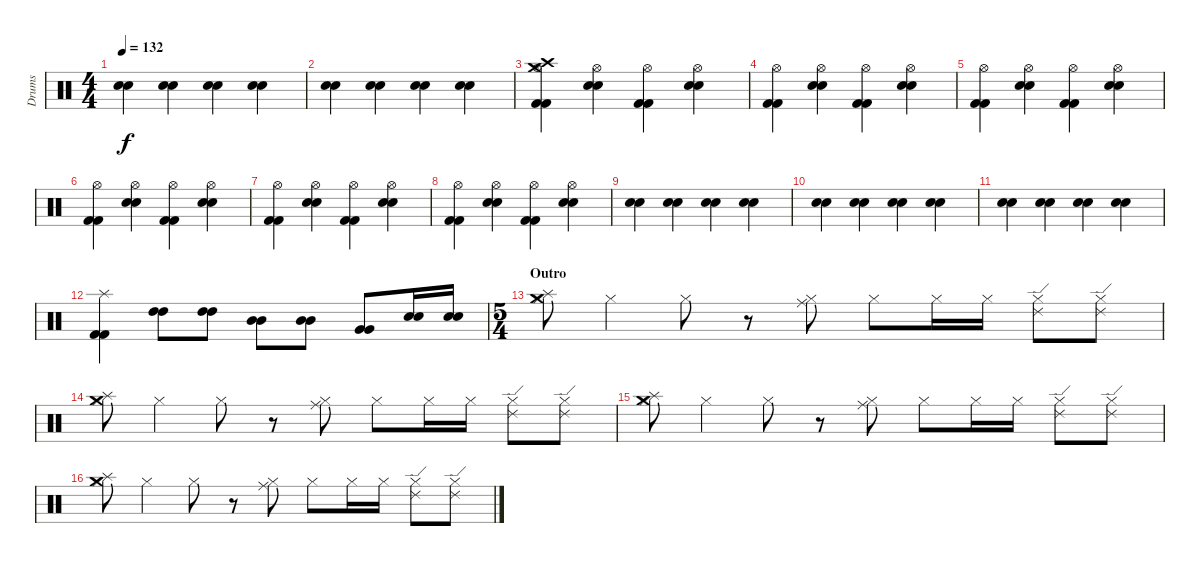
\track ("Drums" "Drums") {instrument percussion}
\staff {score}
\articulation defaults
\ts (4 4)
\tempo 132
\clef neutral
\ks c
("Snare (hit) 2" "Electric Snare (hit)").4{dy f} ("Snare (hit) 2" "Electric Snare (hit)").4 ("Snare (hit) 2" "Electric Snare (hit)").4 ("Snare (hit) 2" "Electric Snare (hit)").4 |
("Snare (hit) 2" "Electric Snare (hit)").4 ("Snare (hit) 2" "Electric Snare (hit)").4 ("Snare (hit) 2" "Electric Snare (hit)").4 ("Snare (hit) 2" "Electric Snare (hit)").4 |
("Kick (hit) 2" "Kick (hit) 2" "Hi-Hat (open)" "Crash medium (hit)" "Crash high (hit)").4 ("Snare (hit) 2" "Snare (hit) 2" "Hi-Hat (open)").4 ("Kick (hit) 2" "Kick (hit) 2" "Hi-Hat (open)").4 ("Snare (hit) 2" "Snare (hit) 2" "Hi-Hat (open)").4 |
("Kick (hit) 2" "Kick (hit) 2" "Hi-Hat (open)").4 ("Snare (hit) 2" "Snare (hit) 2" "Hi-Hat (open)").4 ("Kick (hit) 2" "Kick (hit) 2" "Hi-Hat (open)").4 ("Snare (hit) 2" "Snare (hit) 2" "Hi-Hat (open)").4 |
("Kick (hit) 2" "Kick (hit) 2" "Hi-Hat (open)").4 ("Snare (hit) 2" "Snare (hit) 2" "Hi-Hat (open)").4 ("Kick (hit) 2" "Kick (hit) 2" "Hi-Hat (open)").4 ("Snare (hit) 2" "Snare (hit) 2" "Hi-Hat (open)").4 |
("Kick (hit) 2" "Kick (hit) 2" "Hi-Hat (open)").4 ("Snare (hit) 2" "Snare (hit) 2" "Hi-Hat (open)").4 ("Kick (hit) 2" "Kick (hit) 2" "Hi-Hat (open)").4 ("Snare (hit) 2" "Snare (hit) 2" "Hi-Hat (open)").4 |
("Kick (hit) 2" "Kick (hit) 2" "Hi-Hat (open)").4 ("Snare (hit) 2" "Snare (hit) 2" "Hi-Hat (open)").4 ("Kick (hit) 2" "Kick (hit) 2" "Hi-Hat (open)").4 ("Snare (hit) 2" "Snare (hit) 2" "Hi-Hat (open)").4 |
("Kick (hit) 2" "Kick (hit) 2" "Hi-Hat (open)").4 ("Snare (hit) 2" "Snare (hit) 2" "Hi-Hat (open)").4 ("Kick (hit) 2" "Kick (hit) 2" "Hi-Hat (open)").4 ("Snare (hit) 2" "Snare (hit) 2" "Hi-Hat (open)").4 |
("Snare (hit) 2" "Electric Snare (hit)").4 ("Snare (hit) 2" "Electric Snare (hit)").4 ("Snare (hit) 2" "Electric Snare (hit)").4 ("Snare (hit) 2" "Electric Snare (hit)").4 |
("Snare (hit) 2" "Electric Snare (hit)").4 ("Snare (hit) 2" "Electric Snare (hit)").4 ("Snare (hit) 2" "Electric Snare (hit)").4 ("Snare (hit) 2" "Electric Snare (hit)").4 |
("Snare (hit) 2" "Electric Snare (hit)").4 ("Snare (hit) 2" "Electric Snare (hit)").4 ("Snare (hit) 2" "Electric Snare (hit)").4 ("Snare (hit) 2" "Electric Snare (hit)").4 |
("Kick (hit) 2" "Kick (hit) 2" "Splash (hit)").4 ("High Tom (hit)" "High Tom (hit)").8 ("High Tom (hit)" "High Tom (hit)").8 ("Mid Tom (hit)" "Mid Tom (hit)").8 ("Mid Tom (hit)" "Mid Tom (hit)").8 ("Very Low Tom (hit)" "Very Low Tom (hit)").8 ("Snare (hit) 2" "Snare (hit) 2").16 ("Snare (hit) 2" "Snare (hit) 2").16 |
\ts (5 4)
\section ("" "Outro")
("Hi-Hat (closed)" "Splash (hit)" "Crash medium (hit)").8 "Hi-Hat (closed)".4 "Hi-Hat (closed)".8 r.8 ("Hi-Hat (closed)" "Ride (middle)").8 "Hi-Hat (closed)".8 "Hi-Hat (closed)".16 "Hi-Hat (closed)".16 ("Ride (edge) 2" "Hi-Hat (closed)").8 ("Ride (edge) 2" "Hi-Hat (closed)").8 |
("Hi-Hat (closed)" "Splash (hit)" "Crash medium (hit)").8 "Hi-Hat (closed)".4 "Hi-Hat (closed)".8 r.8 ("Hi-Hat (closed)" "Ride (middle)").8 "Hi-Hat (closed)".8 "Hi-Hat (closed)".16 "Hi-Hat (closed)".16 ("Ride (edge) 2" "Hi-Hat (closed)").8 ("Ride (edge) 2" "Hi-Hat (closed)").8 |
("Hi-Hat (closed)" "Splash (hit)" "Crash medium (hit)").8 "Hi-Hat (closed)".4 "Hi-Hat (closed)".8 r.8 ("Hi-Hat (closed)" "Ride (middle)").8 "Hi-Hat (closed)".8 "Hi-Hat (closed)".16 "Hi-Hat (closed)".16 ("Ride (edge) 2" "Hi-Hat (closed)").8 ("Ride (edge) 2" "Hi-Hat (closed)").8 |
("Hi-Hat (closed)" "Splash (hit)" "Crash medium (hit)").8 "Hi-Hat (closed)".4 "Hi-Hat (closed)".8 r.8 ("Hi-Hat (closed)" "Ride (middle)").8 "Hi-Hat (closed)".8 "Hi-Hat (closed)".16 "Hi-Hat (closed)".16 ("Ride (edge) 2" "Hi-Hat (closed)").8 ("Ride (edge) 2" "Hi-Hat (closed)").8
